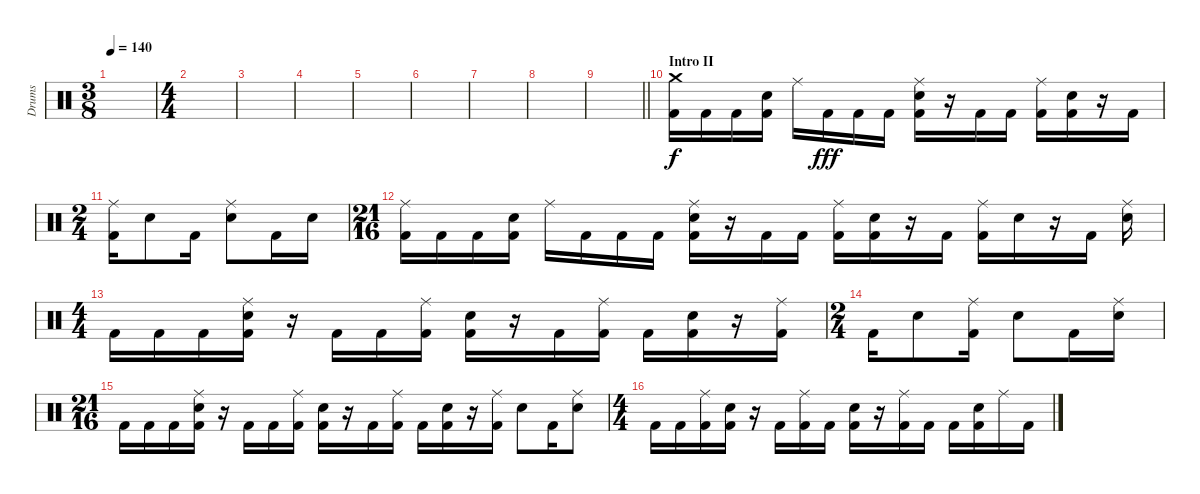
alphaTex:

\track ("Drums" "Drums") {instrument percussion}
\staff {score}
\articulation defaults
\ts (3 8)
\tempo 140
\clef neutral
\ks c
|
\ts (4 4)
|
|
|
|
|
|
|
\barLineRight lightlight
|
\section ("" "Intro II")
("Crash medium (hit)" "Kick (hit) 2").16 "Kick (hit) 2".16 "Kick (hit) 2".16 ("Electric Snare (hit)" "Kick (hit) 2").16 "Ride (middle)".16{dy f} "Kick (hit) 2".16{dy fff} "Kick (hit) 2".16 "Kick (hit) 2".16 ("Ride (middle)" "Electric Snare (hit)" "Kick (hit) 2").16 r.16 "Kick (hit) 2".16 "Kick (hit) 2".16 ("Ride (middle)" "Kick (hit) 2").16 ("Electric Snare (hit)" "Kick (hit) 2").16 r.16 "Kick (hit) 2".16 |
\ts (2 4)
("Ride (middle)" "Kick (hit) 2").16 "Electric Snare (hit)".8 "Kick (hit) 2".16 ("Ride (middle)" "Electric Snare (hit)").8 "Kick (hit) 2".16 "Electric Snare (hit)".16 |
\ts (21 16)
("Ride (middle)" "Kick (hit) 2").16 "Kick (hit) 2".16 "Kick (hit) 2".16 ("Electric Snare (hit)" "Kick (hit) 2").16 "Ride (middle)".16 "Kick (hit) 2".16 "Kick (hit) 2".16 "Kick (hit) 2".16 ("Ride (middle)" "Electric Snare (hit)" "Kick (hit) 2").16 r.16 "Kick (hit) 2".16 "Kick (hit) 2".16 ("Ride (middle)" "Kick (hit) 2").16 ("Electric Snare (hit)" "Kick (hit) 2").16 r.16 "Kick (hit) 2".16 ("Ride (middle)" "Kick (hit) 2").16 "Electric Snare (hit)".16 r.16 "Kick (hit) 2".16 ("Ride (middle)" "Electric Snare (hit)").16 |
\ts (4 4)
"Kick (hit) 2".16 "Kick (hit) 2".16 "Kick (hit) 2".16 ("Ride (middle)" "Electric Snare (hit)" "Kick (hit) 2").16 r.16 "Kick (hit) 2".16 "Kick (hit) 2".16 ("Ride (middle)" "Kick (hit) 2").16 ("Electric Snare (hit)" "Kick (hit) 2").16 r.16 "Kick (hit) 2".16 ("Ride (middle)" "Kick (hit) 2").16 "Kick (hit) 2".16 ("Electric Snare (hit)" "Kick (hit) 2").16 r.16 ("Ride (middle)" "Kick (hit) 2").16 |
\ts (2 4)
"Kick (hit) 2".16 "Electric Snare (hit)".8 ("Ride (middle)" "Kick (hit) 2").16 "Electric Snare (hit)".8 "Kick (hit) 2".16 ("Ride (middle)" "Electric Snare (hit)").16 |
\ts (21 16)
"Kick (hit) 2".16 "Kick (hit) 2".16 "Kick (hit) 2".16 ("Ride (middle)" "Electric Snare (hit)" "Kick (hit) 2").16 r.16 "Kick (hit) 2".16 "Kick (hit) 2".16 ("Ride (middle)" "Kick (hit) 2").16 ("Electric Snare (hit)" "Kick (hit) 2").16 r.16 "Kick (hit) 2".16 ("Ride (middle)" "Kick (hit) 2").16 "Kick (hit) 2".16 ("Electric Snare (hit)" "Kick (hit) 2").16 r.16 ("Ride (middle)" "Kick (hit) 2").16 "Electric Snare (hit)".8 "Kick (hit) 2".16 ("Ride (middle)" "Electric Snare (hit)").8 |
\ts (4 4)
"Kick (hit) 2".16 "Kick (hit) 2".16 ("Ride (middle)" "Kick (hit) 2").16 ("Electric Snare (hit)" "Kick (hit) 2").16 r.16 "Kick (hit) 2".16 ("Ride (middle)" "Kick (hit) 2").16 "Kick (hit) 2".16 ("Electric Snare (hit)" "Kick (hit) 2").16 r.16 ("Ride (middle)" "Kick (hit) 2").16 "Kick (hit) 2".16 "Kick (hit) 2".16 ("Electric Snare (hit)" "Kick (hit) 2").16 "Ride (middle)".16 "Kick (hit) 2".16
